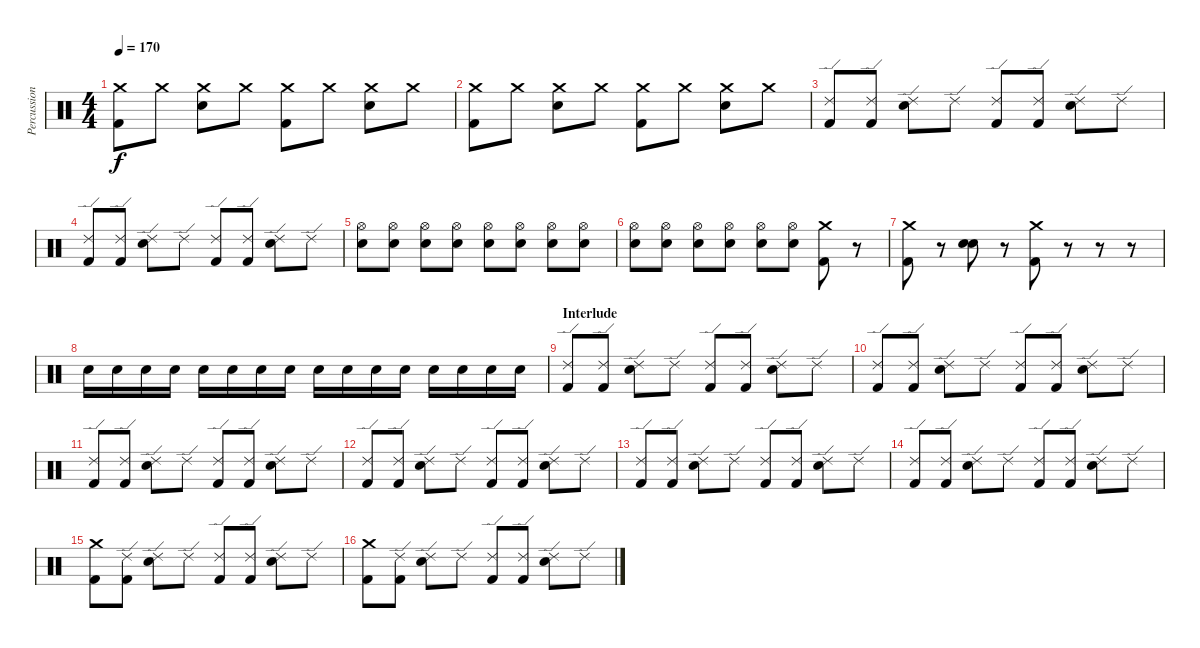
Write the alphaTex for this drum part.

\track ("Percussion" "Percussion") {instrument percussion}
\staff {score}
\articulation defaults
\ts (4 4)
\tempo 170
\clef neutral
\ks c
("Crash medium (hit)" "Kick (hit) 2").8{dy f} "Crash medium (hit)".8 ("Crash medium (hit)" "Snare (hit) 2").8 "Crash medium (hit)".8 ("Crash medium (hit)" "Kick (hit) 2").8 "Crash medium (hit)".8 ("Crash medium (hit)" "Snare (hit) 2").8 "Crash medium (hit)".8 |
("Crash medium (hit)" "Kick (hit) 2").8 "Crash medium (hit)".8 ("Crash medium (hit)" "Snare (hit) 2").8 "Crash medium (hit)".8 ("Crash medium (hit)" "Kick (hit) 2").8 "Crash medium (hit)".8 ("Crash medium (hit)" "Snare (hit) 2").8 "Crash medium (hit)".8 |
("Ride (edge) 2" "Kick (hit) 2").8 ("Ride (edge) 2" "Kick (hit) 2").8 ("Ride (edge) 2" "Snare (hit) 2").8 "Ride (edge) 2".8 ("Ride (edge) 2" "Kick (hit) 2").8 ("Ride (edge) 2" "Kick (hit) 2").8 ("Ride (edge) 2" "Snare (hit) 2").8 "Ride (edge) 2".8 |
("Ride (edge) 2" "Kick (hit) 2").8 ("Ride (edge) 2" "Kick (hit) 2").8 ("Ride (edge) 2" "Snare (hit) 2").8 "Ride (edge) 2".8 ("Ride (edge) 2" "Kick (hit) 2").8 ("Ride (edge) 2" "Kick (hit) 2").8 ("Ride (edge) 2" "Snare (hit) 2").8 "Ride (edge) 2".8 |
("Hi-Hat (open)" "Snare (hit) 2").8 ("Hi-Hat (open)" "Snare (hit) 2").8 ("Hi-Hat (open)" "Snare (hit) 2").8 ("Hi-Hat (open)" "Snare (hit) 2").8 ("Hi-Hat (open)" "Snare (hit) 2").8 ("Hi-Hat (open)" "Snare (hit) 2").8 ("Hi-Hat (open)" "Snare (hit) 2").8 ("Hi-Hat (open)" "Snare (hit) 2").8 |
("Hi-Hat (open)" "Snare (hit) 2").8 ("Hi-Hat (open)" "Snare (hit) 2").8 ("Hi-Hat (open)" "Snare (hit) 2").8 ("Hi-Hat (open)" "Snare (hit) 2").8 ("Hi-Hat (open)" "Snare (hit) 2").8 ("Hi-Hat (open)" "Snare (hit) 2").8 ("Crash medium (hit)" "Kick (hit) 2").8 r.8 |
("Crash medium (hit)" "Kick (hit) 2").8 r.8 ("Snare (hit) 2" "Snare (hit) 2").8{bu 120} r.8 ("Crash medium (hit)" "Kick (hit) 2").8 r.8 r.8 r.8 |
"Snare (hit) 2".16 "Snare (hit) 2".16 "Snare (hit) 2".16 "Snare (hit) 2".16 "Snare (hit) 2".16 "Snare (hit) 2".16 "Snare (hit) 2".16 "Snare (hit) 2".16 "Snare (hit) 2".16 "Snare (hit) 2".16 "Snare (hit) 2".16 "Snare (hit) 2".16 "Snare (hit) 2".16 "Snare (hit) 2".16 "Snare (hit) 2".16 "Snare (hit) 2".16 |
\section ("" "Interlude")
("Ride (edge) 2" "Kick (hit) 2").8 ("Ride (edge) 2" "Kick (hit) 2").8 ("Ride (edge) 2" "Snare (hit) 2").8 "Ride (edge) 2".8 ("Ride (edge) 2" "Kick (hit) 2").8 ("Ride (edge) 2" "Kick (hit) 2").8 ("Ride (edge) 2" "Snare (hit) 2").8 "Ride (edge) 2".8 |
("Ride (edge) 2" "Kick (hit) 2").8 ("Ride (edge) 2" "Kick (hit) 2").8 ("Ride (edge) 2" "Snare (hit) 2").8 "Ride (edge) 2".8 ("Ride (edge) 2" "Kick (hit) 2").8 ("Ride (edge) 2" "Kick (hit) 2").8 ("Ride (edge) 2" "Snare (hit) 2").8 "Ride (edge) 2".8 |
("Ride (edge) 2" "Kick (hit) 2").8 ("Ride (edge) 2" "Kick (hit) 2").8 ("Ride (edge) 2" "Snare (hit) 2").8 "Ride (edge) 2".8 ("Ride (edge) 2" "Kick (hit) 2").8 ("Ride (edge) 2" "Kick (hit) 2").8 ("Ride (edge) 2" "Snare (hit) 2").8 "Ride (edge) 2".8 |
("Ride (edge) 2" "Kick (hit) 2").8 ("Ride (edge) 2" "Kick (hit) 2").8 ("Ride (edge) 2" "Snare (hit) 2").8 "Ride (edge) 2".8 ("Ride (edge) 2" "Kick (hit) 2").8 ("Ride (edge) 2" "Kick (hit) 2").8 ("Ride (edge) 2" "Snare (hit) 2").8 "Ride (edge) 2".8 |
("Ride (edge) 2" "Kick (hit) 2").8 ("Ride (edge) 2" "Kick (hit) 2").8 ("Ride (edge) 2" "Snare (hit) 2").8 "Ride (edge) 2".8 ("Ride (edge) 2" "Kick (hit) 2").8 ("Ride (edge) 2" "Kick (hit) 2").8 ("Ride (edge) 2" "Snare (hit) 2").8 "Ride (edge) 2".8 |
("Ride (edge) 2" "Kick (hit) 2").8 ("Ride (edge) 2" "Kick (hit) 2").8 ("Ride (edge) 2" "Snare (hit) 2").8 "Ride (edge) 2".8 ("Ride (edge) 2" "Kick (hit) 2").8 ("Ride (edge) 2" "Kick (hit) 2").8 ("Ride (edge) 2" "Snare (hit) 2").8 "Ride (edge) 2".8 |
("Crash medium (hit)" "Kick (hit) 2").8 ("Ride (edge) 2" "Kick (hit) 2").8 ("Ride (edge) 2" "Snare (hit) 2").8 "Ride (edge) 2".8 ("Ride (edge) 2" "Kick (hit) 2").8 ("Ride (edge) 2" "Kick (hit) 2").8 ("Ride (edge) 2" "Snare (hit) 2").8 "Ride (edge) 2".8 |
("Crash medium (hit)" "Kick (hit) 2").8 ("Ride (edge) 2" "Kick (hit) 2").8 ("Ride (edge) 2" "Snare (hit) 2").8 "Ride (edge) 2".8 ("Ride (edge) 2" "Kick (hit) 2").8 ("Ride (edge) 2" "Kick (hit) 2").8 ("Ride (edge) 2" "Snare (hit) 2").8 "Ride (edge) 2".8
